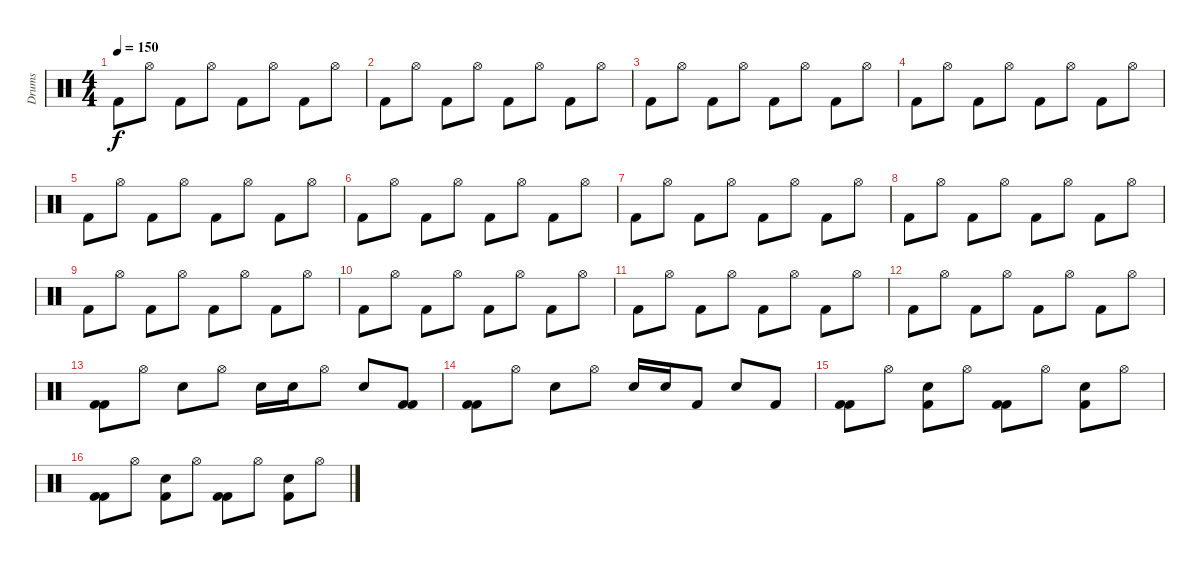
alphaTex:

\track ("Drums" "Drums") {instrument percussion}
\staff {score}
\articulation defaults
\ts (4 4)
\tempo 150
\clef neutral
\ks c "Kick (hit) 2".8{dy f} "Hi-Hat (open)".8 "Kick (hit) 2".8 "Hi-Hat (open)".8 "Kick (hit) 2".8 "Hi-Hat (open)".8 "Kick (hit) 2".8 "Hi-Hat (open)".8
|
"Kick (hit) 2".8 "Hi-Hat (open)".8 "Kick (hit) 2".8 "Hi-Hat (open)".8 "Kick (hit) 2".8 "Hi-Hat (open)".8 "Kick (hit) 2".8 "Hi-Hat (open)".8 |
"Kick (hit) 2".8 "Hi-Hat (open)".8 "Kick (hit) 2".8 "Hi-Hat (open)".8 "Kick (hit) 2".8 "Hi-Hat (open)".8 "Kick (hit) 2".8 "Hi-Hat (open)".8 |
"Kick (hit) 2".8 "Hi-Hat (open)".8 "Kick (hit) 2".8 "Hi-Hat (open)".8 "Kick (hit) 2".8 "Hi-Hat (open)".8 "Kick (hit) 2".8 "Hi-Hat (open)".8 |
"Kick (hit) 2".8 "Hi-Hat (open)".8 "Kick (hit) 2".8 "Hi-Hat (open)".8 "Kick (hit) 2".8 "Hi-Hat (open)".8 "Kick (hit) 2".8 "Hi-Hat (open)".8 |
"Kick (hit) 2".8 "Hi-Hat (open)".8 "Kick (hit) 2".8 "Hi-Hat (open)".8 "Kick (hit) 2".8 "Hi-Hat (open)".8 "Kick (hit) 2".8 "Hi-Hat (open)".8 |
"Kick (hit) 2".8 "Hi-Hat (open)".8 "Kick (hit) 2".8 "Hi-Hat (open)".8 "Kick (hit) 2".8 "Hi-Hat (open)".8 "Kick (hit) 2".8 "Hi-Hat (open)".8 |
"Kick (hit) 2".8 "Hi-Hat (open)".8 "Kick (hit) 2".8 "Hi-Hat (open)".8 "Kick (hit) 2".8 "Hi-Hat (open)".8 "Kick (hit) 2".8 "Hi-Hat (open)".8 |
"Kick (hit) 2".8 "Hi-Hat (open)".8 "Kick (hit) 2".8 "Hi-Hat (open)".8 "Kick (hit) 2".8 "Hi-Hat (open)".8 "Kick (hit) 2".8 "Hi-Hat (open)".8 |
"Kick (hit) 2".8 "Hi-Hat (open)".8 "Kick (hit) 2".8 "Hi-Hat (open)".8 "Kick (hit) 2".8 "Hi-Hat (open)".8 "Kick (hit) 2".8 "Hi-Hat (open)".8 |
"Kick (hit) 2".8 "Hi-Hat (open)".8 "Kick (hit) 2".8 "Hi-Hat (open)".8 "Kick (hit) 2".8 "Hi-Hat (open)".8 "Kick (hit) 2".8 "Hi-Hat (open)".8 |
"Kick (hit) 2".8 "Hi-Hat (open)".8 "Kick (hit) 2".8 "Hi-Hat (open)".8 "Kick (hit) 2".8 "Hi-Hat (open)".8 "Kick (hit) 2".8 "Hi-Hat (open)".8 |
("Kick (hit) 2" "Kick (hit) 2").8 "Hi-Hat (open)".8 "Snare (hit) 2".8 "Hi-Hat (open)".8 "Snare (hit) 2".16 "Snare (hit) 2".16 "Hi-Hat (open)".8 "Snare (hit) 2".8 ("Kick (hit) 2" "Kick (hit) 2").8 |
("Kick (hit) 2" "Kick (hit) 2").8 "Hi-Hat (open)".8 "Snare (hit) 2".8 "Hi-Hat (open)".8 "Snare (hit) 2".16 "Snare (hit) 2".16 "Kick (hit) 2".8 "Snare (hit) 2".8 "Kick (hit) 2".8 |
("Kick (hit) 2" "Kick (hit) 2").8 "Hi-Hat (open)".8 ("Snare (hit) 2" "Kick (hit) 2").8 "Hi-Hat (open)".8 ("Kick (hit) 2" "Kick (hit) 2").8 "Hi-Hat (open)".8 ("Snare (hit) 2" "Kick (hit) 2").8 "Hi-Hat (open)".8 |
("Kick (hit) 2" "Kick (hit) 2").8 "Hi-Hat (open)".8 ("Snare (hit) 2" "Kick (hit) 2").8 "Hi-Hat (open)".8 ("Kick (hit) 2" "Kick (hit) 2").8 "Hi-Hat (open)".8 ("Snare (hit) 2" "Kick (hit) 2").8 "Hi-Hat (open)".8
